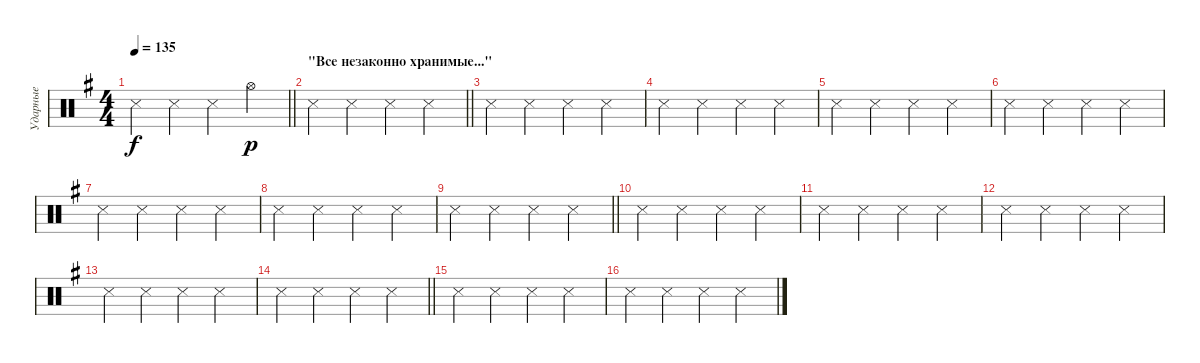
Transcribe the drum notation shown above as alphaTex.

\track ("Ударные" "Ударные") {instrument percussion}
\staff {score}
\articulation defaults
\ts (4 4)
\tempo 135
\clef neutral
\barLineRight lightlight
\ks eminor "Snare (side stick) 3".4{dy f} "Snare (side stick) 3".4 "Snare (side stick) 3".4 "Hi-Hat (open)".4{dy p}
|
\section ("" "\"Все незаконно хранимые...\"")
\barLineRight lightlight "Snare (side stick) 3".4 "Snare (side stick) 3".4 "Snare (side stick) 3".4 "Snare (side stick) 3".4
|
"Snare (side stick) 3".4 "Snare (side stick) 3".4 "Snare (side stick) 3".4 "Snare (side stick) 3".4 |
"Snare (side stick) 3".4 "Snare (side stick) 3".4 "Snare (side stick) 3".4 "Snare (side stick) 3".4 |
"Snare (side stick) 3".4 "Snare (side stick) 3".4 "Snare (side stick) 3".4 "Snare (side stick) 3".4 |
"Snare (side stick) 3".4 "Snare (side stick) 3".4 "Snare (side stick) 3".4 "Snare (side stick) 3".4 |
"Snare (side stick) 3".4 "Snare (side stick) 3".4 "Snare (side stick) 3".4 "Snare (side stick) 3".4 |
"Snare (side stick) 3".4 "Snare (side stick) 3".4 "Snare (side stick) 3".4 "Snare (side stick) 3".4 |
\barLineRight lightlight "Snare (side stick) 3".4 "Snare (side stick) 3".4 "Snare (side stick) 3".4 "Snare (side stick) 3".4
|
"Snare (side stick) 3".4 "Snare (side stick) 3".4 "Snare (side stick) 3".4 "Snare (side stick) 3".4 |
"Snare (side stick) 3".4 "Snare (side stick) 3".4 "Snare (side stick) 3".4 "Snare (side stick) 3".4 |
"Snare (side stick) 3".4 "Snare (side stick) 3".4 "Snare (side stick) 3".4 "Snare (side stick) 3".4 |
"Snare (side stick) 3".4 "Snare (side stick) 3".4 "Snare (side stick) 3".4 "Snare (side stick) 3".4 |
\barLineRight lightlight "Snare (side stick) 3".4 "Snare (side stick) 3".4 "Snare (side stick) 3".4 "Snare (side stick) 3".4
|
"Snare (side stick) 3".4 "Snare (side stick) 3".4 "Snare (side stick) 3".4 "Snare (side stick) 3".4 |
"Snare (side stick) 3".4 "Snare (side stick) 3".4 "Snare (side stick) 3".4 "Snare (side stick) 3".4
